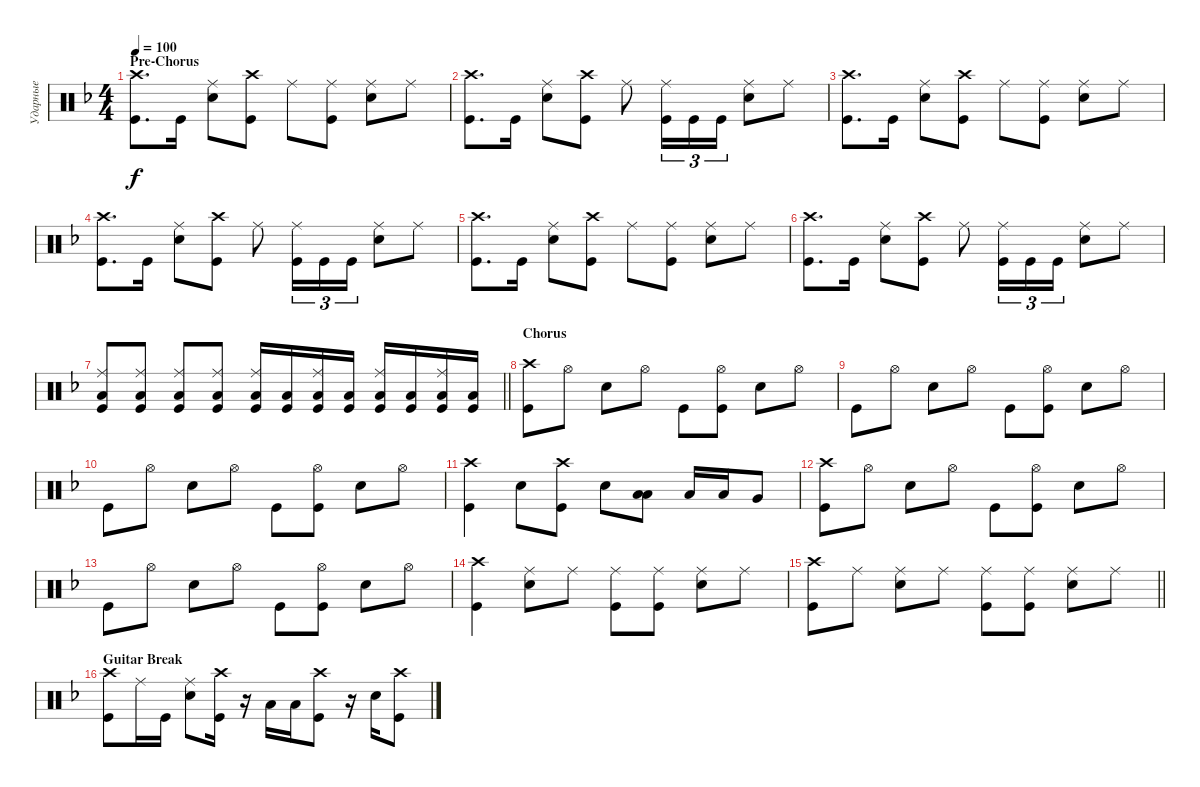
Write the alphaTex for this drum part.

\track ("Ударные" "Ударные") {instrument percussion}
\staff {score}
\articulation defaults
\ts (4 4)
\section ("" "Pre-Chorus")
\tempo 100
\clef neutral
\ks dminor
("Kick (hit)" "Crash high (hit)").8{d dy f} "Kick (hit)".16 ("Snare (hit) 2" "Ride (middle)").8 ("Kick (hit)" "Crash high (hit)").8 "Ride (middle)".8 ("Ride (middle)" "Kick (hit)").8 ("Snare (hit) 2" "Ride (middle)").8 "Ride (middle)".8 |
("Kick (hit)" "Crash high (hit)").8{d} "Kick (hit)".16 ("Snare (hit) 2" "Ride (middle)").8 ("Kick (hit)" "Crash high (hit)").8 "Ride (middle)".8 ("Ride (middle)" "Kick (hit)").16{tu (3 2)} "Kick (hit)".16{tu (3 2)} "Kick (hit)".16{tu (3 2)} ("Snare (hit) 2" "Ride (middle)").8 "Ride (middle)".8 |
("Kick (hit)" "Crash high (hit)").8{d} "Kick (hit)".16 ("Snare (hit) 2" "Ride (middle)").8 ("Kick (hit)" "Crash high (hit)").8 "Ride (middle)".8 ("Ride (middle)" "Kick (hit)").8 ("Snare (hit) 2" "Ride (middle)").8 "Ride (middle)".8 |
("Kick (hit)" "Crash high (hit)").8{d} "Kick (hit)".16 ("Snare (hit) 2" "Ride (middle)").8 ("Kick (hit)" "Crash high (hit)").8 "Ride (middle)".8 ("Ride (middle)" "Kick (hit)").16{tu (3 2)} "Kick (hit)".16{tu (3 2)} "Kick (hit)".16{tu (3 2)} ("Snare (hit) 2" "Ride (middle)").8 "Ride (middle)".8 |
("Kick (hit)" "Crash high (hit)").8{d} "Kick (hit)".16 ("Snare (hit) 2" "Ride (middle)").8 ("Kick (hit)" "Crash high (hit)").8 "Ride (middle)".8 ("Ride (middle)" "Kick (hit)").8 ("Snare (hit) 2" "Ride (middle)").8 "Ride (middle)".8 |
("Kick (hit)" "Crash high (hit)").8{d} "Kick (hit)".16 ("Snare (hit) 2" "Ride (middle)").8 ("Kick (hit)" "Crash high (hit)").8 "Ride (middle)".8 ("Ride (middle)" "Kick (hit)").16{tu (3 2)} "Kick (hit)".16{tu (3 2)} "Kick (hit)".16{tu (3 2)} ("Snare (hit) 2" "Ride (middle)").8 "Ride (middle)".8 |
\barLineRight lightlight
("Kick (hit)" "Ride (middle)" "Low Floor Tom (hit)").8 ("Kick (hit)" "Ride (middle)" "Low Floor Tom (hit)").8 ("Kick (hit)" "Ride (middle)" "Low Floor Tom (hit)").8 ("Kick (hit)" "Ride (middle)" "Low Floor Tom (hit)").8 ("Kick (hit)" "Ride (middle)" "Low Floor Tom (hit)").16 ("Kick (hit)" "Low Floor Tom (hit)").16 ("Kick (hit)" "Ride (middle)" "Low Floor Tom (hit)").16 ("Kick (hit)" "Low Floor Tom (hit)").16 ("Kick (hit)" "Ride (middle)" "Low Floor Tom (hit)").16 ("Kick (hit)" "Low Floor Tom (hit)").16 ("Kick (hit)" "Ride (middle)" "Low Floor Tom (hit)").16 ("Kick (hit)" "Low Floor Tom (hit)").16 |
\section ("" "Chorus")
("Kick (hit)" "Crash high (hit)").8 "Hi-Hat (open)".8 "Snare (hit) 2".8 "Hi-Hat (open)".8 "Kick (hit)".8 ("Hi-Hat (open)" "Kick (hit)").8 "Snare (hit) 2".8 "Hi-Hat (open)".8 |
"Kick (hit)".8 "Hi-Hat (open)".8 "Snare (hit) 2".8 "Hi-Hat (open)".8 "Kick (hit)".8 ("Hi-Hat (open)" "Kick (hit)").8 "Snare (hit) 2".8 "Hi-Hat (open)".8 |
"Kick (hit)".8 "Hi-Hat (open)".8 "Snare (hit) 2".8 "Hi-Hat (open)".8 "Kick (hit)".8 ("Hi-Hat (open)" "Kick (hit)").8 "Snare (hit) 2".8 "Hi-Hat (open)".8 |
("Kick (hit)" "Crash high (hit)").4 "Snare (hit) 2".8 ("Kick (hit)" "Crash high (hit)").8 "Snare (hit) 2".8 ("Low Tom (hit)" "Low Tom (hit)").8{bd 120} "Low Tom (hit)".16 "Low Tom (hit)".16 "Very Low Tom (hit)".8 |
("Kick (hit)" "Crash high (hit)").8 "Hi-Hat (open)".8 "Snare (hit) 2".8 "Hi-Hat (open)".8 "Kick (hit)".8 ("Hi-Hat (open)" "Kick (hit)").8 "Snare (hit) 2".8 "Hi-Hat (open)".8 |
"Kick (hit)".8 "Hi-Hat (open)".8 "Snare (hit) 2".8 "Hi-Hat (open)".8 "Kick (hit)".8 ("Hi-Hat (open)" "Kick (hit)").8 "Snare (hit) 2".8 "Hi-Hat (open)".8 |
("Kick (hit)" "Crash high (hit)").4 ("Snare (hit) 2" "Ride (middle)").8 "Ride (middle)".8 ("Ride (middle)" "Kick (hit)").8 ("Ride (middle)" "Kick (hit)").8 ("Ride (middle)" "Snare (hit) 2").8 "Ride (middle)".8 |
\barLineRight lightlight
("Kick (hit)" "Crash high (hit)").8 "Ride (middle)".8 ("Snare (hit) 2" "Ride (middle)").8 "Ride (middle)".8 ("Ride (middle)" "Kick (hit)").8 ("Ride (middle)" "Kick (hit)").8 ("Ride (middle)" "Snare (hit) 2").8 "Ride (middle)".8 |
\section ("" "Guitar Break")
("Kick (hit)" "Crash high (hit)").8 "Ride (middle)".16 "Kick (hit)".16 ("Snare (hit) 2" "Ride (middle)").8 ("Kick (hit)" "Crash high (hit)").16 r.16 "Low Tom (hit)".16 "Low Tom (hit)".16 ("Kick (hit)" "Crash high (hit)").8 r.16 "Snare (hit) 2".16 ("Kick (hit)" "Crash high (hit)").8
